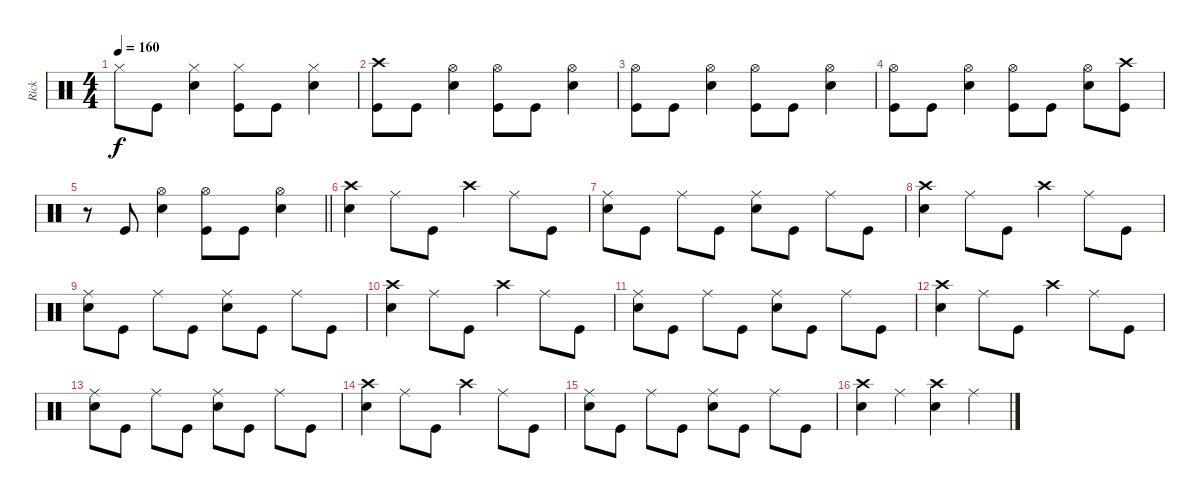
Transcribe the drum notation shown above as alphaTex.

\track ("Rick" "Rick") {instrument percussion}
\staff {score}
\articulation defaults
\ts (4 4)
\tempo 160
\clef neutral
\ks c "Hi-Hat (closed)".8{dy f} "Kick (hit)".8
("Hi-Hat (closed)" "Snare (hit) 2").4 ("Hi-Hat (closed)" "Kick (hit)").8 "Kick (hit)".8 ("Hi-Hat (closed)" "Snare (hit) 2").4 |
("Crash high (hit)" "Kick (hit)").8 "Kick (hit)".8 ("Hi-Hat (open)" "Snare (hit) 2").4 ("Hi-Hat (open)" "Kick (hit)").8 "Kick (hit)".8 ("Hi-Hat (open)" "Snare (hit) 2").4 |
("Hi-Hat (open)" "Kick (hit)").8 "Kick (hit)".8 ("Hi-Hat (open)" "Snare (hit) 2").4 ("Hi-Hat (open)" "Kick (hit)").8 "Kick (hit)".8 ("Hi-Hat (open)" "Snare (hit) 2").4 |
("Hi-Hat (open)" "Kick (hit)").8 "Kick (hit)".8 ("Hi-Hat (open)" "Snare (hit) 2").4 ("Hi-Hat (open)" "Kick (hit)").8 "Kick (hit)".8 ("Hi-Hat (open)" "Snare (hit) 2").8 ("Crash high (hit)" "Kick (hit)").8 |
\barLineRight lightlight
r.8 "Kick (hit)".8 ("Hi-Hat (open)" "Snare (hit) 2").4 ("Hi-Hat (open)" "Kick (hit)").8 "Kick (hit)".8 ("Hi-Hat (open)" "Snare (hit) 2").4 |
("Crash high (hit)" "Snare (hit) 2").4 "Ride (middle)".8 "Kick (hit)".8 "Crash high (hit)".4 "Ride (middle)".8 "Kick (hit)".8 |
("Ride (middle)" "Snare (hit) 2").8 "Kick (hit)".8 "Ride (middle)".8 "Kick (hit)".8 ("Ride (middle)" "Snare (hit) 2").8 "Kick (hit)".8 "Ride (middle)".8 "Kick (hit)".8 |
("Crash high (hit)" "Snare (hit) 2").4 "Ride (middle)".8 "Kick (hit)".8 "Crash high (hit)".4 "Ride (middle)".8 "Kick (hit)".8 |
("Ride (middle)" "Snare (hit) 2").8 "Kick (hit)".8 "Ride (middle)".8 "Kick (hit)".8 ("Ride (middle)" "Snare (hit) 2").8 "Kick (hit)".8 "Ride (middle)".8 "Kick (hit)".8 |
("Crash high (hit)" "Snare (hit) 2").4 "Ride (middle)".8 "Kick (hit)".8 "Crash high (hit)".4 "Ride (middle)".8 "Kick (hit)".8 |
("Ride (middle)" "Snare (hit) 2").8 "Kick (hit)".8 "Ride (middle)".8 "Kick (hit)".8 ("Ride (middle)" "Snare (hit) 2").8 "Kick (hit)".8 "Ride (middle)".8 "Kick (hit)".8 |
("Crash high (hit)" "Snare (hit) 2").4 "Ride (middle)".8 "Kick (hit)".8 "Crash high (hit)".4 "Ride (middle)".8 "Kick (hit)".8 |
("Ride (middle)" "Snare (hit) 2").8 "Kick (hit)".8 "Ride (middle)".8 "Kick (hit)".8 ("Ride (middle)" "Snare (hit) 2").8 "Kick (hit)".8 "Ride (middle)".8 "Kick (hit)".8 |
("Crash high (hit)" "Snare (hit) 2").4 "Ride (middle)".8 "Kick (hit)".8 "Crash high (hit)".4 "Ride (middle)".8 "Kick (hit)".8 |
("Ride (middle)" "Snare (hit) 2").8 "Kick (hit)".8 "Ride (middle)".8 "Kick (hit)".8 ("Ride (middle)" "Snare (hit) 2").8 "Kick (hit)".8 "Ride (middle)".8 "Kick (hit)".8 |
("Crash high (hit)" "Snare (hit) 2").4 "Ride (middle)".4 ("Crash high (hit)" "Snare (hit) 2").4 "Ride (middle)".4
